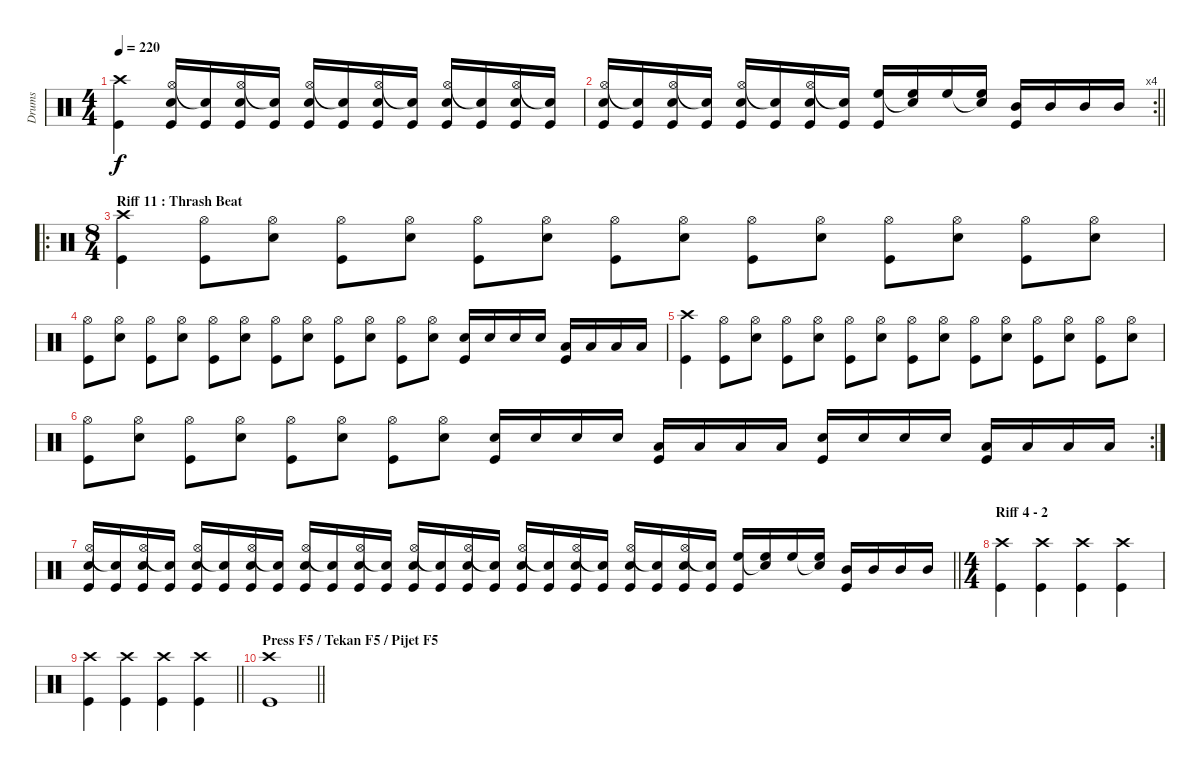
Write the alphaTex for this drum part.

\track ("Drums" "Drums") {instrument percussion}
\staff {score}
\articulation defaults
\ts (4 4)
\tempo 220
\clef neutral
\ks c
("Crash high (hit)" "Kick (hit)").4{dy f} ("Hi-Hat (open)" "Electric Snare (hit)" "Kick (hit)").16 ("Snare (hit)"{t} "Kick (hit)").16 ("Hi-Hat (open)" "Electric Snare (hit)" "Kick (hit)").16 ("Snare (hit)"{t} "Kick (hit)").16 ("Hi-Hat (open)" "Electric Snare (hit)" "Kick (hit)").16 ("Snare (hit)"{t} "Kick (hit)").16 ("Hi-Hat (open)" "Electric Snare (hit)" "Kick (hit)").16 ("Snare (hit)"{t} "Kick (hit)").16 ("Hi-Hat (open)" "Electric Snare (hit)" "Kick (hit)").16 ("Snare (hit)"{t} "Kick (hit)").16 ("Hi-Hat (open)" "Electric Snare (hit)" "Kick (hit)").16 ("Snare (hit)"{t} "Kick (hit)").16 |
\rc 4
\barLineRight lightlight
("Hi-Hat (open)" "Electric Snare (hit)" "Kick (hit)").16 ("Snare (hit)"{t} "Kick (hit)").16 ("Hi-Hat (open)" "Electric Snare (hit)" "Kick (hit)").16 ("Snare (hit)"{t} "Kick (hit)").16 ("Hi-Hat (open)" "Electric Snare (hit)" "Kick (hit)").16 ("Snare (hit)"{t} "Kick (hit)").16 ("Hi-Hat (open)" "Electric Snare (hit)" "Kick (hit)").16 ("Snare (hit)"{t} "Kick (hit)").16 ("High Floor Tom (hit)" "Kick (hit)").16 ("Snare (hit)"{t} "High Floor Tom (hit)").16 "High Floor Tom (hit)".16 ("Snare (hit)"{t} "High Floor Tom (hit)").16 ("Mid Tom (hit)" "Kick (hit)").16 "Mid Tom (hit)".16 "Mid Tom (hit)".16 "Mid Tom (hit)".16 |
\ro
\ts (8 4)
\section ("" "Riff 11 : Thrash Beat")
("Crash high (hit)" "Kick (hit)").4 ("Hi-Hat (open)" "Kick (hit)").8 ("Hi-Hat (open)" "Electric Snare (hit)").8 ("Hi-Hat (open)" "Kick (hit)").8 ("Hi-Hat (open)" "Electric Snare (hit)").8 ("Hi-Hat (open)" "Kick (hit)").8 ("Hi-Hat (open)" "Electric Snare (hit)").8 ("Hi-Hat (open)" "Kick (hit)").8 ("Hi-Hat (open)" "Electric Snare (hit)").8 ("Hi-Hat (open)" "Kick (hit)").8 ("Hi-Hat (open)" "Electric Snare (hit)").8 ("Hi-Hat (open)" "Kick (hit)").8 ("Hi-Hat (open)" "Electric Snare (hit)").8 ("Hi-Hat (open)" "Kick (hit)").8 ("Hi-Hat (open)" "Electric Snare (hit)").8 |
("Hi-Hat (open)" "Kick (hit)").8 ("Hi-Hat (open)" "Electric Snare (hit)").8 ("Hi-Hat (open)" "Kick (hit)").8 ("Hi-Hat (open)" "Electric Snare (hit)").8 ("Hi-Hat (open)" "Kick (hit)").8 ("Hi-Hat (open)" "Electric Snare (hit)").8 ("Hi-Hat (open)" "Kick (hit)").8 ("Hi-Hat (open)" "Electric Snare (hit)").8 ("Hi-Hat (open)" "Kick (hit)").8 ("Hi-Hat (open)" "Electric Snare (hit)").8 ("Hi-Hat (open)" "Kick (hit)").8 ("Hi-Hat (open)" "Electric Snare (hit)").8 ("Electric Snare (hit)" "Kick (hit)").16 "Electric Snare (hit)".16 "Electric Snare (hit)".16 "Electric Snare (hit)".16 ("Low Tom (hit)" "Kick (hit)").16 "Low Tom (hit)".16 "Low Tom (hit)".16 "Low Tom (hit)".16 |
("Crash high (hit)" "Kick (hit)").4 ("Hi-Hat (open)" "Kick (hit)").8 ("Hi-Hat (open)" "Electric Snare (hit)").8 ("Hi-Hat (open)" "Kick (hit)").8 ("Hi-Hat (open)" "Electric Snare (hit)").8 ("Hi-Hat (open)" "Kick (hit)").8 ("Hi-Hat (open)" "Electric Snare (hit)").8 ("Hi-Hat (open)" "Kick (hit)").8 ("Hi-Hat (open)" "Electric Snare (hit)").8 ("Hi-Hat (open)" "Kick (hit)").8 ("Hi-Hat (open)" "Electric Snare (hit)").8 ("Hi-Hat (open)" "Kick (hit)").8 ("Hi-Hat (open)" "Electric Snare (hit)").8 ("Hi-Hat (open)" "Kick (hit)").8 ("Hi-Hat (open)" "Electric Snare (hit)").8 |
\rc 2
("Hi-Hat (open)" "Kick (hit)").8 ("Hi-Hat (open)" "Electric Snare (hit)").8 ("Hi-Hat (open)" "Kick (hit)").8 ("Hi-Hat (open)" "Electric Snare (hit)").8 ("Hi-Hat (open)" "Kick (hit)").8 ("Hi-Hat (open)" "Electric Snare (hit)").8 ("Hi-Hat (open)" "Kick (hit)").8 ("Hi-Hat (open)" "Electric Snare (hit)").8 ("Electric Snare (hit)" "Kick (hit)").16 "Electric Snare (hit)".16 "Electric Snare (hit)".16 "Electric Snare (hit)".16 ("Low Tom (hit)" "Kick (hit)").16 "Low Tom (hit)".16 "Low Tom (hit)".16 "Low Tom (hit)".16 ("Electric Snare (hit)" "Kick (hit)").16 "Electric Snare (hit)".16 "Electric Snare (hit)".16 "Electric Snare (hit)".16 ("Low Tom (hit)" "Kick (hit)").16 "Low Tom (hit)".16 "Low Tom (hit)".16 "Low Tom (hit)".16 |
\barLineRight lightlight
("Hi-Hat (open)" "Electric Snare (hit)" "Kick (hit)").16 ("Snare (hit)"{t} "Kick (hit)").16 ("Hi-Hat (open)" "Electric Snare (hit)" "Kick (hit)").16 ("Snare (hit)"{t} "Kick (hit)").16 ("Hi-Hat (open)" "Electric Snare (hit)" "Kick (hit)").16 ("Snare (hit)"{t} "Kick (hit)").16 ("Hi-Hat (open)" "Electric Snare (hit)" "Kick (hit)").16 ("Snare (hit)"{t} "Kick (hit)").16 ("Hi-Hat (open)" "Electric Snare (hit)" "Kick (hit)").16 ("Snare (hit)"{t} "Kick (hit)").16 ("Hi-Hat (open)" "Electric Snare (hit)" "Kick (hit)").16 ("Snare (hit)"{t} "Kick (hit)").16 ("Hi-Hat (open)" "Electric Snare (hit)" "Kick (hit)").16 ("Snare (hit)"{t} "Kick (hit)").16 ("Hi-Hat (open)" "Electric Snare (hit)" "Kick (hit)").16 ("Snare (hit)"{t} "Kick (hit)").16 ("Hi-Hat (open)" "Electric Snare (hit)" "Kick (hit)").16 ("Snare (hit)"{t} "Kick (hit)").16 ("Hi-Hat (open)" "Electric Snare (hit)" "Kick (hit)").16 ("Snare (hit)"{t} "Kick (hit)").16 ("Hi-Hat (open)" "Electric Snare (hit)" "Kick (hit)").16 ("Snare (hit)"{t} "Kick (hit)").16 ("Hi-Hat (open)" "Electric Snare (hit)" "Kick (hit)").16 ("Snare (hit)"{t} "Kick (hit)").16 ("High Floor Tom (hit)" "Kick (hit)").16 ("Snare (hit)"{t} "High Floor Tom (hit)").16 "High Floor Tom (hit)".16 ("Snare (hit)"{t} "High Floor Tom (hit)").16 ("Mid Tom (hit)" "Kick (hit)").16 "Mid Tom (hit)".16 "Mid Tom (hit)".16 "Mid Tom (hit)".16 |
\ts (4 4)
\section ("" "Riff 4 - 2")
("Crash high (hit)" "Kick (hit)").4 ("Crash high (hit)" "Kick (hit)").4 ("Crash high (hit)" "Kick (hit)").4 ("Crash high (hit)" "Kick (hit)").4 |
\barLineRight lightlight
("Crash high (hit)" "Kick (hit)").4 ("Crash high (hit)" "Kick (hit)").4 ("Crash high (hit)" "Kick (hit)").4 ("Crash high (hit)" "Kick (hit)").4 |
\section ("" "Press F5 / Tekan F5 / Pijet F5")
\barLineRight lightlight
("Crash high (hit)" "Kick (hit)").1
